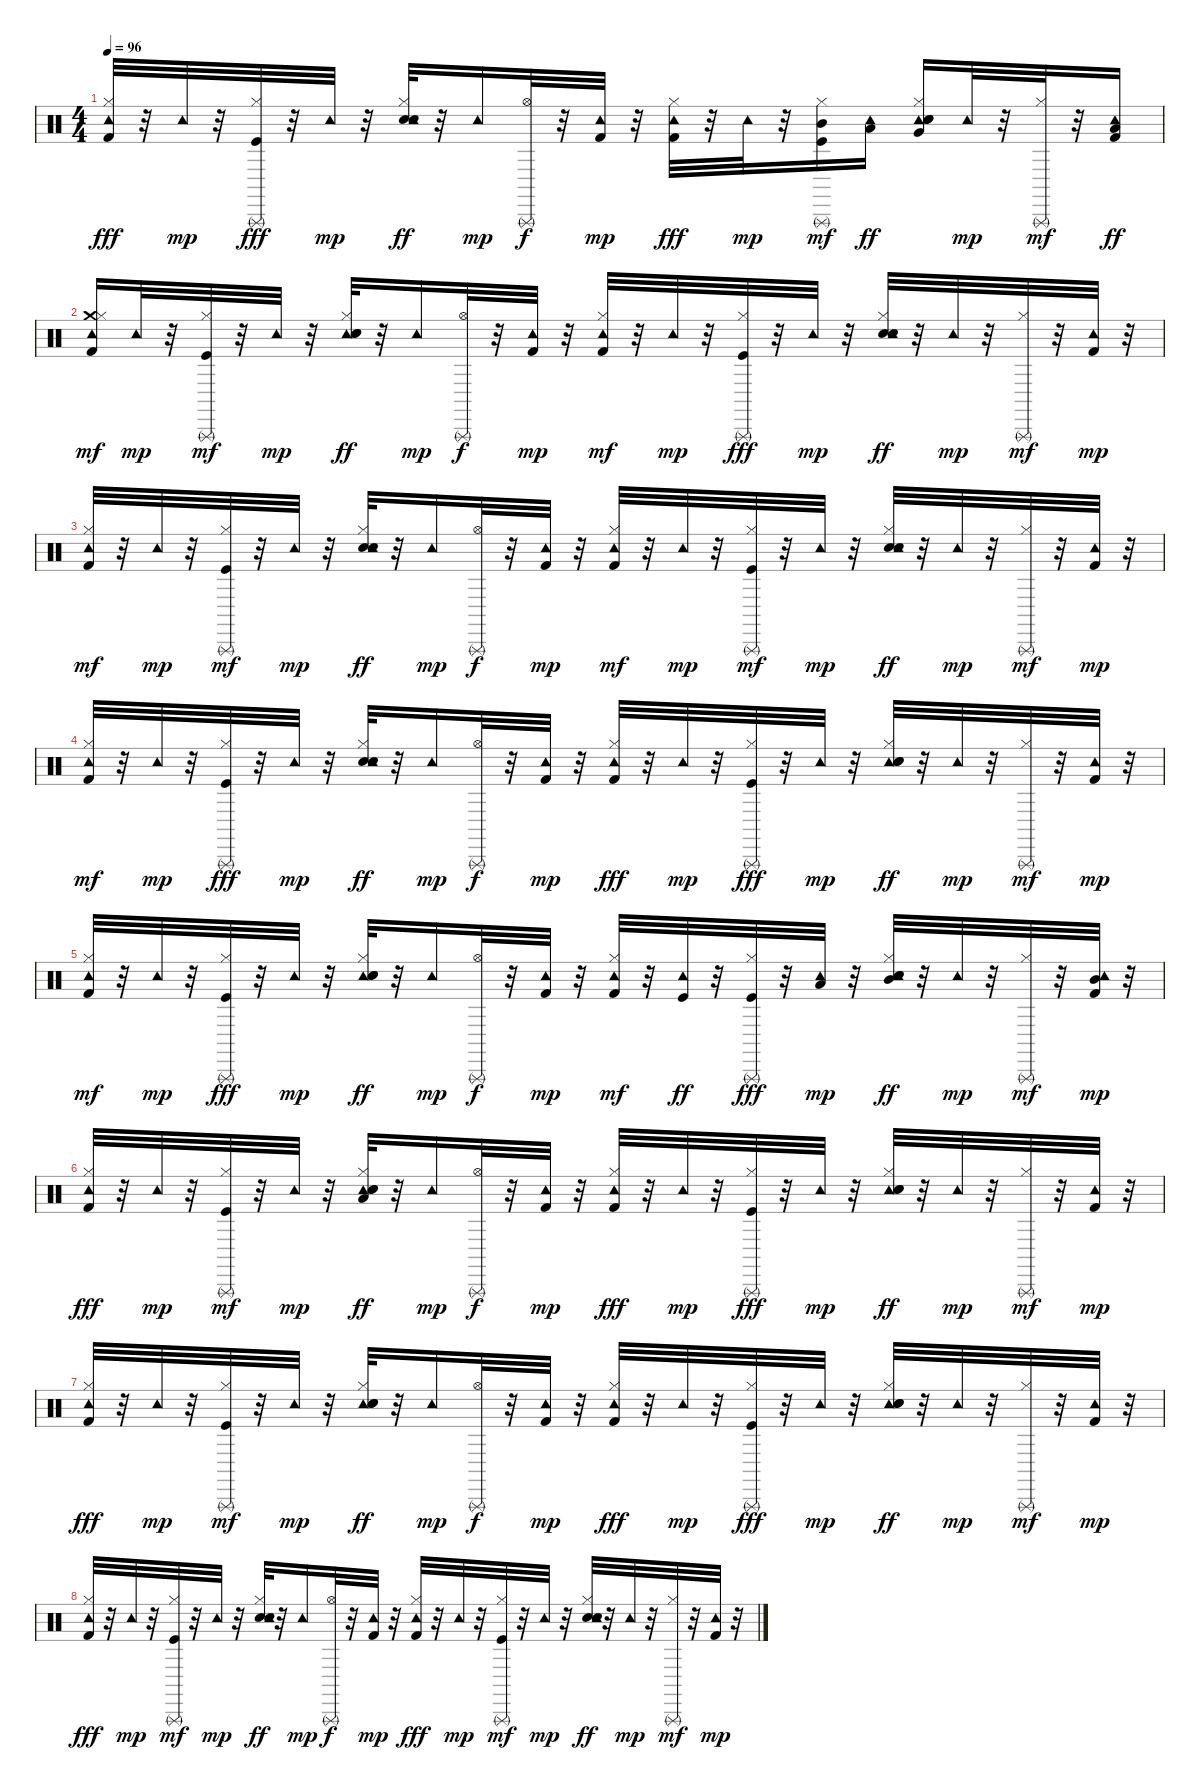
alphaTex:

\track "" {instrument percussion}
\staff {score}
\articulation defaults
\ts (4 4)
\tempo 96
\clef neutral
\ks c
("Tambourine (hit)" "Hi-Hat (closed)" "Kick (hit) 2").32{dy fff} r.32 "Tambourine (hit)".32{dy mp} r.32 ("Hi-Hat (closed)" "Kick (hit)" "Triangle (rnute)").32{dy fff} r.32 "Tambourine (hit)".32{dy mp} r.32 ("Hi-Hat (closed)" "Electric Snare (hit)" "Tambourine (hit)" "Hand Clap (hit)").32{dy ff} r.32 "Tambourine (hit)".16{dy mp} ("Triangle (rnute)" "Hi-Hat (open)").32{dy f} r.32 ("Kick (hit) 2" "Tambourine (hit)").32{dy mp} r.32 ("Tambourine (hit)" "Hi-Hat (closed)" "Kick (hit) 2").32{dy fff} r.32 "Tambourine (hit)".32{dy mp} r.32 ("Triangle (rnute)" "Kick (hit)" "Mid Tom (hit)" "Hi-Hat (closed)").16{dy mf} ("Tambourine (hit)" "Low Tom (hit)").16{dy ff} ("Tambourine (hit)" "Electric Snare (hit)" "Very Low Tom (hit)" "Hi-Hat (closed)" "Hand Clap (hit)").16 "Tambourine (hit)".32{dy mp} r.32 ("Triangle (rnute)" "Hi-Hat (closed)").32{dy mf} r.32 ("Kick (hit) 2" "Tambourine (hit)" "Low Tom (hit)").16{dy ff} |
("Crash medium (hit)" "Hi-Hat (closed)" "Kick (hit) 2" "Tambourine (hit)").16{dy mf} "Tambourine (hit)".32{dy mp} r.32 ("Kick (hit)" "Triangle (rnute)" "Hi-Hat (closed)").32{dy mf} r.32 "Tambourine (hit)".32{dy mp} r.32 ("Hi-Hat (closed)" "Tambourine (hit)" "Electric Snare (hit)" "Hand Clap (hit)").32{dy ff} r.32 "Tambourine (hit)".16{dy mp} ("Hi-Hat (open)" "Triangle (rnute)").32{dy f} r.32 ("Tambourine (hit)" "Kick (hit) 2").32{dy mp} r.32 ("Hi-Hat (closed)" "Kick (hit) 2" "Tambourine (hit)").32{dy mf} r.32 "Tambourine (hit)".32{dy mp} r.32 ("Hi-Hat (closed)" "Triangle (rnute)" "Kick (hit)").32{dy fff} r.32 "Tambourine (hit)".32{dy mp} r.32 ("Hi-Hat (closed)" "Electric Snare (hit)" "Tambourine (hit)" "Hand Clap (hit)").32{dy ff} r.32 "Tambourine (hit)".32{dy mp} r.32 ("Triangle (rnute)" "Hi-Hat (closed)").32{dy mf} r.32 ("Kick (hit) 2" "Tambourine (hit)").32{dy mp} r.32 |
("Kick (hit) 2" "Tambourine (hit)" "Hi-Hat (closed)").32{dy mf} r.32 "Tambourine (hit)".32{dy mp} r.32 ("Triangle (rnute)" "Kick (hit)" "Hi-Hat (closed)").32{dy mf} r.32 "Tambourine (hit)".32{dy mp} r.32 ("Electric Snare (hit)" "Hi-Hat (closed)" "Tambourine (hit)" "Hand Clap (hit)").32{dy ff} r.32 "Tambourine (hit)".16{dy mp} ("Triangle (rnute)" "Hi-Hat (open)").32{dy f} r.32 ("Kick (hit) 2" "Tambourine (hit)").32{dy mp} r.32 ("Hi-Hat (closed)" "Kick (hit) 2" "Tambourine (hit)").32{dy mf} r.32 "Tambourine (hit)".32{dy mp} r.32 ("Kick (hit)" "Hi-Hat (closed)" "Triangle (rnute)").32{dy mf} r.32 "Tambourine (hit)".32{dy mp} r.32 ("Hi-Hat (closed)" "Electric Snare (hit)" "Tambourine (hit)" "Hand Clap (hit)").32{dy ff} r.32 "Tambourine (hit)".32{dy mp} r.32 ("Triangle (rnute)" "Hi-Hat (closed)").32{dy mf} r.32 ("Kick (hit) 2" "Tambourine (hit)").32{dy mp} r.32 |
("Hi-Hat (closed)" "Kick (hit) 2" "Tambourine (hit)").32{dy mf} r.32 "Tambourine (hit)".32{dy mp} r.32 ("Triangle (rnute)" "Hi-Hat (closed)" "Kick (hit)").32{dy fff} r.32 "Tambourine (hit)".32{dy mp} r.32 ("Hi-Hat (closed)" "Electric Snare (hit)" "Tambourine (hit)" "Hand Clap (hit)").32{dy ff} r.32 "Tambourine (hit)".16{dy mp} ("Hi-Hat (open)" "Triangle (rnute)").32{dy f} r.32 ("Kick (hit) 2" "Tambourine (hit)").32{dy mp} r.32 ("Hi-Hat (closed)" "Tambourine (hit)" "Kick (hit) 2").32{dy fff} r.32 "Tambourine (hit)".32{dy mp} r.32 ("Triangle (rnute)" "Hi-Hat (closed)" "Kick (hit)").32{dy fff} r.32 "Tambourine (hit)".32{dy mp} r.32 ("Tambourine (hit)" "Hi-Hat (closed)" "Electric Snare (hit)" "Hand Clap (hit)").32{dy ff} r.32 "Tambourine (hit)".32{dy mp} r.32 ("Triangle (rnute)" "Hi-Hat (closed)").32{dy mf} r.32 ("Kick (hit) 2" "Tambourine (hit)").32{dy mp} r.32 |
("Kick (hit) 2" "Tambourine (hit)" "Hi-Hat (closed)").32{dy mf} r.32 "Tambourine (hit)".32{dy mp} r.32 ("Hi-Hat (closed)" "Kick (hit)" "Triangle (rnute)").32{dy fff} r.32 "Tambourine (hit)".32{dy mp} r.32 ("Tambourine (hit)" "Hi-Hat (closed)" "Electric Snare (hit)" "Hand Clap (hit)").32{dy ff} r.32 "Tambourine (hit)".16{dy mp} ("Triangle (rnute)" "Hi-Hat (open)").32{dy f} r.32 ("Kick (hit) 2" "Tambourine (hit)").32{dy mp} r.32 ("Kick (hit) 2" "Hi-Hat (closed)" "Tambourine (hit)").32{dy mf} r.32 ("Tambourine (hit)" "Kick (hit)").32{dy ff} r.32 ("Hi-Hat (closed)" "Kick (hit)" "Triangle (rnute)").32{dy fff} r.32 ("Low Tom (hit)" "Tambourine (hit)").32{dy mp} r.32 ("Tambourine (hit)" "Hi-Hat (closed)" "Mid Tom (hit)" "Electric Snare (hit)" "Hand Clap (hit)").32{dy ff} r.32 "Tambourine (hit)".32{dy mp} r.32 ("Hi-Hat (closed)" "Triangle (rnute)").32{dy mf} r.32 ("Mid Tom (hit)" "Tambourine (hit)" "Kick (hit) 2").32{dy mp} r.32 |
("Tambourine (hit)" "Kick (hit) 2" "Hi-Hat (closed)").32{dy fff} r.32 "Tambourine (hit)".32{dy mp} r.32 ("Kick (hit)" "Triangle (rnute)" "Hi-Hat (closed)").32{dy mf} r.32 "Tambourine (hit)".32{dy mp} r.32 ("Low Tom (hit)" "Hi-Hat (closed)" "Tambourine (hit)" "Electric Snare (hit)" "Hand Clap (hit)").32{dy ff} r.32 "Tambourine (hit)".16{dy mp} ("Triangle (rnute)" "Hi-Hat (open)").32{dy f} r.32 ("Tambourine (hit)" "Kick (hit) 2").32{dy mp} r.32 ("Hi-Hat (closed)" "Tambourine (hit)" "Kick (hit) 2").32{dy fff} r.32 "Tambourine (hit)".32{dy mp} r.32 ("Triangle (rnute)" "Hi-Hat (closed)" "Kick (hit)").32{dy fff} r.32 "Tambourine (hit)".32{dy mp} r.32 ("Tambourine (hit)" "Electric Snare (hit)" "Hi-Hat (closed)" "Hand Clap (hit)").32{dy ff} r.32 "Tambourine (hit)".32{dy mp} r.32 ("Hi-Hat (closed)" "Triangle (rnute)").32{dy mf} r.32 ("Kick (hit) 2" "Tambourine (hit)").32{dy mp} r.32 |
("Tambourine (hit)" "Hi-Hat (closed)" "Kick (hit) 2").32{dy fff} r.32 "Tambourine (hit)".32{dy mp} r.32 ("Kick (hit)" "Triangle (rnute)" "Hi-Hat (closed)").32{dy mf} r.32 "Tambourine (hit)".32{dy mp} r.32 ("Tambourine (hit)" "Hi-Hat (closed)" "Electric Snare (hit)" "Hand Clap (hit)").32{dy ff} r.32 "Tambourine (hit)".16{dy mp} ("Triangle (rnute)" "Hi-Hat (open)").32{dy f} r.32 ("Kick (hit) 2" "Tambourine (hit)").32{dy mp} r.32 ("Tambourine (hit)" "Hi-Hat (closed)" "Kick (hit) 2").32{dy fff} r.32 "Tambourine (hit)".32{dy mp} r.32 ("Triangle (rnute)" "Hi-Hat (closed)" "Kick (hit)").32{dy fff} r.32 "Tambourine (hit)".32{dy mp} r.32 ("Tambourine (hit)" "Hi-Hat (closed)" "Electric Snare (hit)" "Hand Clap (hit)").32{dy ff} r.32 "Tambourine (hit)".32{dy mp} r.32 ("Hi-Hat (closed)" "Triangle (rnute)").32{dy mf} r.32 ("Tambourine (hit)" "Kick (hit) 2").32{dy mp} r.32 |
("Tambourine (hit)" "Kick (hit) 2" "Hi-Hat (closed)").32{dy fff} r.32 "Tambourine (hit)".32{dy mp} r.32 ("Kick (hit)" "Triangle (rnute)" "Hi-Hat (closed)").32{dy mf} r.32 "Tambourine (hit)".32{dy mp} r.32 ("Electric Snare (hit)" "Hi-Hat (closed)" "Tambourine (hit)" "Hand Clap (hit)").32{dy ff} r.32 "Tambourine (hit)".16{dy mp} ("Triangle (rnute)" "Hi-Hat (open)").32{dy f} r.32 ("Kick (hit) 2" "Tambourine (hit)").32{dy mp} r.32 ("Tambourine (hit)" "Kick (hit) 2" "Hi-Hat (closed)").32{dy fff} r.32 "Tambourine (hit)".32{dy mp} r.32 ("Triangle (rnute)" "Kick (hit)" "Hi-Hat (closed)").32{dy mf} r.32 "Tambourine (hit)".32{dy mp} r.32 ("Electric Snare (hit)" "Hi-Hat (closed)" "Tambourine (hit)" "Hand Clap (hit)").32{dy ff} r.32 "Tambourine (hit)".32{dy mp} r.32 ("Triangle (rnute)" "Hi-Hat (closed)").32{dy mf} r.32 ("Tambourine (hit)" "Kick (hit) 2").32{dy mp} r.32
